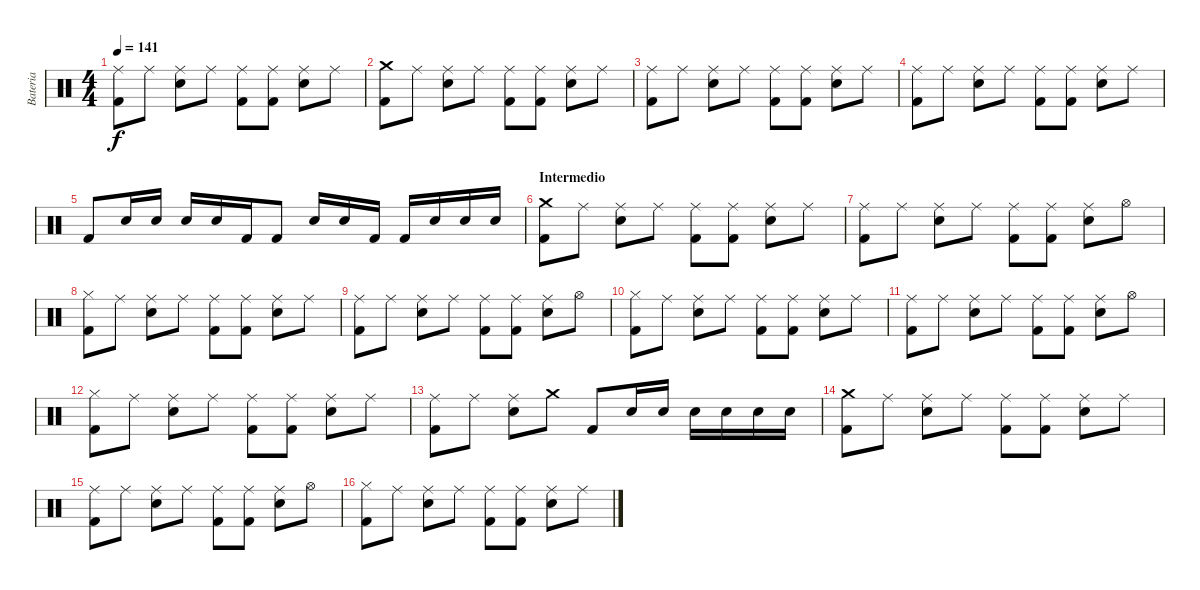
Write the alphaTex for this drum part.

\track ("Bateria" "Bateria") {instrument percussion}
\staff {score}
\articulation defaults
\ts (4 4)
\tempo 141
\clef neutral
\ks c
("Ride (middle)" "Kick (hit) 2").8{dy f} "Ride (middle)".8 ("Ride (middle)" "Electric Snare (hit)").8 "Ride (middle)".8 ("Ride (middle)" "Kick (hit) 2").8 ("Ride (middle)" "Kick (hit) 2").8 ("Ride (middle)" "Electric Snare (hit)").8 "Ride (middle)".8 |
("Crash medium (hit)" "Kick (hit) 2").8 "Ride (middle)".8 ("Ride (middle)" "Electric Snare (hit)").8 "Ride (middle)".8 ("Ride (middle)" "Kick (hit) 2").8 ("Ride (middle)" "Kick (hit) 2").8 ("Ride (middle)" "Electric Snare (hit)").8 "Ride (middle)".8 |
("Ride (middle)" "Kick (hit) 2").8 "Ride (middle)".8 ("Ride (middle)" "Electric Snare (hit)").8 "Ride (middle)".8 ("Ride (middle)" "Kick (hit) 2").8 ("Ride (middle)" "Kick (hit) 2").8 ("Ride (middle)" "Electric Snare (hit)").8 "Ride (middle)".8 |
("Ride (middle)" "Kick (hit) 2").8 "Ride (middle)".8 ("Ride (middle)" "Electric Snare (hit)").8 "Ride (middle)".8 ("Ride (middle)" "Kick (hit) 2").8 ("Ride (middle)" "Kick (hit) 2").8 ("Ride (middle)" "Electric Snare (hit)").8 "Ride (middle)".8 |
"Kick (hit) 2".8 "Electric Snare (hit)".16 "Electric Snare (hit)".16 "Electric Snare (hit)".16 "Electric Snare (hit)".16 "Kick (hit) 2".16 "Kick (hit) 2".8 "Electric Snare (hit)".16 "Electric Snare (hit)".16 "Kick (hit) 2".16 "Kick (hit) 2".16 "Electric Snare (hit)".16 "Electric Snare (hit)".16 "Electric Snare (hit)".16 |
\section ("" "Intermedio")
("Crash medium (hit)" "Kick (hit) 2").8 "Ride (middle)".8 ("Ride (middle)" "Electric Snare (hit)").8 "Ride (middle)".8 ("Ride (middle)" "Kick (hit) 2").8 ("Ride (middle)" "Kick (hit) 2").8 ("Ride (middle)" "Electric Snare (hit)").8 "Ride (middle)".8 |
("Ride (middle)" "Kick (hit) 2").8 "Ride (middle)".8 ("Ride (middle)" "Electric Snare (hit)").8 "Ride (middle)".8 ("Ride (middle)" "Kick (hit) 2").8 ("Ride (middle)" "Kick (hit) 2").8 ("Ride (middle)" "Electric Snare (hit)").8 "Hi-Hat (open)".8 |
("Hi-Hat (closed)" "Kick (hit) 2").8 "Ride (middle)".8 ("Ride (middle)" "Electric Snare (hit)").8 "Ride (middle)".8 ("Ride (middle)" "Kick (hit) 2").8 ("Ride (middle)" "Kick (hit) 2").8 ("Ride (middle)" "Electric Snare (hit)").8 "Ride (middle)".8 |
("Ride (middle)" "Kick (hit) 2").8 "Ride (middle)".8 ("Ride (middle)" "Electric Snare (hit)").8 "Ride (middle)".8 ("Ride (middle)" "Kick (hit) 2").8 ("Ride (middle)" "Kick (hit) 2").8 ("Ride (middle)" "Electric Snare (hit)").8 "Hi-Hat (open)".8 |
("Hi-Hat (closed)" "Kick (hit) 2").8 "Ride (middle)".8 ("Ride (middle)" "Electric Snare (hit)").8 "Ride (middle)".8 ("Ride (middle)" "Kick (hit) 2").8 ("Ride (middle)" "Kick (hit) 2").8 ("Ride (middle)" "Electric Snare (hit)").8 "Ride (middle)".8 |
("Ride (middle)" "Kick (hit) 2").8 "Ride (middle)".8 ("Ride (middle)" "Electric Snare (hit)").8 "Ride (middle)".8 ("Ride (middle)" "Kick (hit) 2").8 ("Ride (middle)" "Kick (hit) 2").8 ("Ride (middle)" "Electric Snare (hit)").8 "Hi-Hat (open)".8 |
("Hi-Hat (closed)" "Kick (hit) 2").8 "Ride (middle)".8 ("Ride (middle)" "Electric Snare (hit)").8 "Ride (middle)".8 ("Ride (middle)" "Kick (hit) 2").8 ("Ride (middle)" "Kick (hit) 2").8 ("Ride (middle)" "Electric Snare (hit)").8 "Ride (middle)".8 |
("Ride (middle)" "Kick (hit) 2").8 "Ride (middle)".8 ("Ride (middle)" "Electric Snare (hit)").8 "Crash medium (hit)".8 "Kick (hit) 2".8 "Electric Snare (hit)".16 "Electric Snare (hit)".16 "Electric Snare (hit)".16 "Electric Snare (hit)".16 "Electric Snare (hit)".16 "Electric Snare (hit)".16 |
("Crash medium (hit)" "Kick (hit) 2").8 "Ride (middle)".8 ("Ride (middle)" "Electric Snare (hit)").8 "Ride (middle)".8 ("Ride (middle)" "Kick (hit) 2").8 ("Ride (middle)" "Kick (hit) 2").8 ("Ride (middle)" "Electric Snare (hit)").8 "Ride (middle)".8 |
("Ride (middle)" "Kick (hit) 2").8 "Ride (middle)".8 ("Ride (middle)" "Electric Snare (hit)").8 "Ride (middle)".8 ("Ride (middle)" "Kick (hit) 2").8 ("Ride (middle)" "Kick (hit) 2").8 ("Ride (middle)" "Electric Snare (hit)").8 "Hi-Hat (open)".8 |
("Hi-Hat (closed)" "Kick (hit) 2").8 "Ride (middle)".8 ("Ride (middle)" "Electric Snare (hit)").8 "Ride (middle)".8 ("Ride (middle)" "Kick (hit) 2").8 ("Ride (middle)" "Kick (hit) 2").8 ("Ride (middle)" "Electric Snare (hit)").8 "Ride (middle)".8
